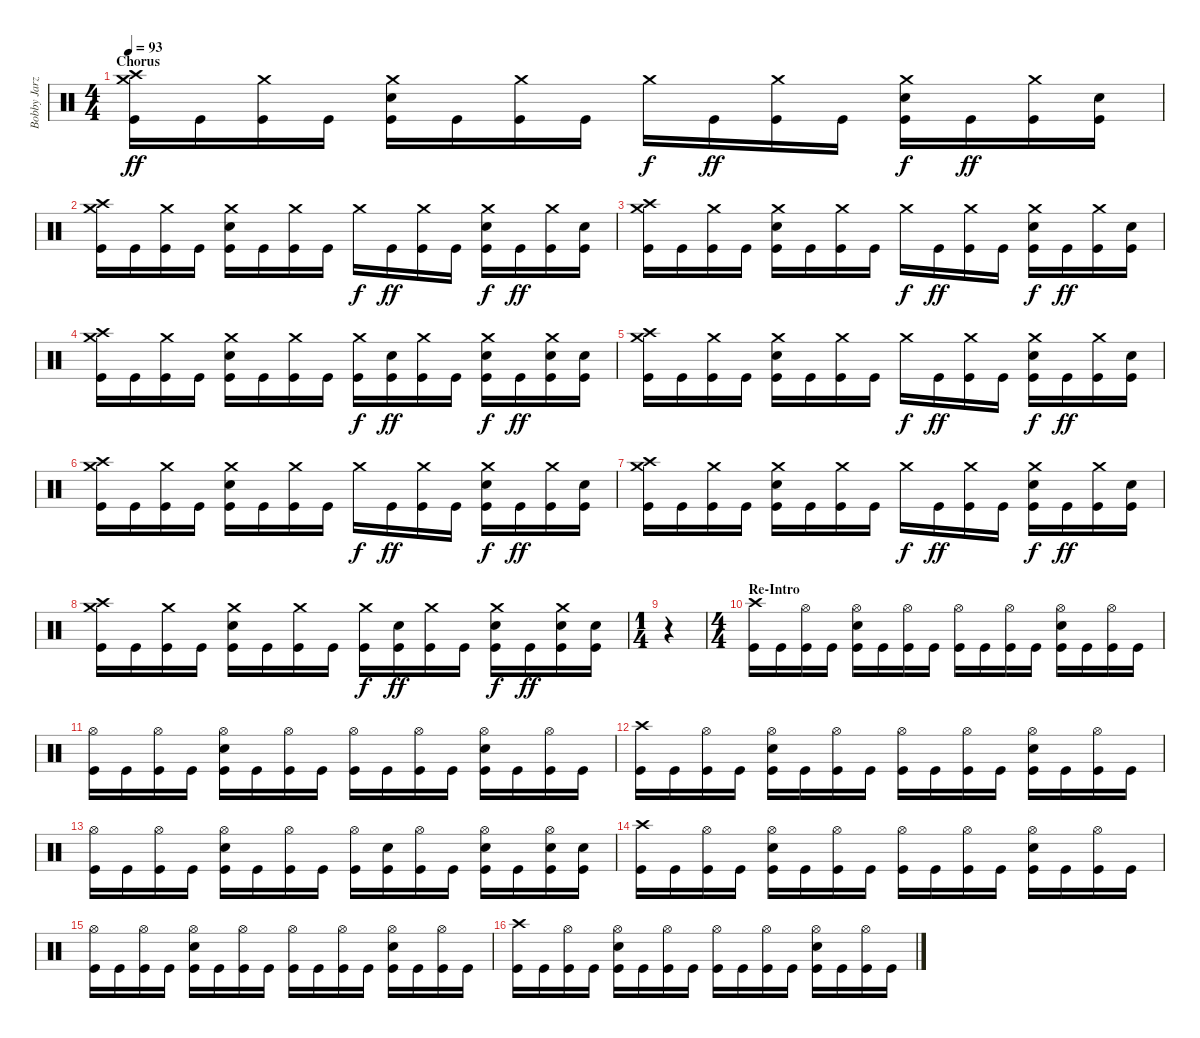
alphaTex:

\track ("Bobby Jarzombek" "Bobby Jarz") {instrument percussion}
\staff {score}
\articulation defaults
\ts (4 4)
\section ("" "Chorus")
\tempo 93
\clef neutral
\ks c
("Crash high (hit)" "Crash medium (hit)" "Kick (hit)").16{dy ff} "Kick (hit)".16 ("Crash medium (hit)" "Kick (hit)").16 "Kick (hit)".16 ("Crash medium (hit)" "Electric Snare (hit)" "Kick (hit)").16 "Kick (hit)".16 ("Crash medium (hit)" "Kick (hit)").16 "Kick (hit)".16 "Crash medium (hit)".16{dy f} "Kick (hit)".16{dy ff} ("Crash medium (hit)" "Kick (hit)").16 "Kick (hit)".16 ("Crash medium (hit)" "Electric Snare (hit)" "Kick (hit)").16{dy f} "Kick (hit)".16{dy ff} ("Crash medium (hit)" "Kick (hit)").16 ("Electric Snare (hit)" "Kick (hit)").16 |
("Crash medium (hit)" "Crash high (hit)" "Kick (hit)").16 "Kick (hit)".16 ("Crash medium (hit)" "Kick (hit)").16 "Kick (hit)".16 ("Crash medium (hit)" "Electric Snare (hit)" "Kick (hit)").16 "Kick (hit)".16 ("Crash medium (hit)" "Kick (hit)").16 "Kick (hit)".16 "Crash medium (hit)".16{dy f} "Kick (hit)".16{dy ff} ("Crash medium (hit)" "Kick (hit)").16 "Kick (hit)".16 ("Crash medium (hit)" "Electric Snare (hit)" "Kick (hit)").16{dy f} "Kick (hit)".16{dy ff} ("Crash medium (hit)" "Kick (hit)").16 ("Electric Snare (hit)" "Kick (hit)").16 |
("Crash high (hit)" "Crash medium (hit)" "Kick (hit)").16 "Kick (hit)".16 ("Crash medium (hit)" "Kick (hit)").16 "Kick (hit)".16 ("Crash medium (hit)" "Electric Snare (hit)" "Kick (hit)").16 "Kick (hit)".16 ("Crash medium (hit)" "Kick (hit)").16 "Kick (hit)".16 "Crash medium (hit)".16{dy f} "Kick (hit)".16{dy ff} ("Crash medium (hit)" "Kick (hit)").16 "Kick (hit)".16 ("Crash medium (hit)" "Electric Snare (hit)" "Kick (hit)").16{dy f} "Kick (hit)".16{dy ff} ("Crash medium (hit)" "Kick (hit)").16 ("Electric Snare (hit)" "Kick (hit)").16 |
("Crash medium (hit)" "Crash high (hit)" "Kick (hit)").16 "Kick (hit)".16 ("Crash medium (hit)" "Kick (hit)").16 "Kick (hit)".16 ("Crash medium (hit)" "Electric Snare (hit)" "Kick (hit)").16 "Kick (hit)".16 ("Crash medium (hit)" "Kick (hit)").16 "Kick (hit)".16 ("Crash medium (hit)" "Kick (hit)").16{dy f} ("Electric Snare (hit)" "Kick (hit)").16{dy ff} ("Crash medium (hit)" "Kick (hit)").16 "Kick (hit)".16 ("Crash medium (hit)" "Electric Snare (hit)" "Kick (hit)").16{dy f} "Kick (hit)".16{dy ff} ("Crash medium (hit)" "Electric Snare (hit)" "Kick (hit)").16 ("Electric Snare (hit)" "Kick (hit)").16 |
("Crash high (hit)" "Crash medium (hit)" "Kick (hit)").16 "Kick (hit)".16 ("Crash medium (hit)" "Kick (hit)").16 "Kick (hit)".16 ("Crash medium (hit)" "Electric Snare (hit)" "Kick (hit)").16 "Kick (hit)".16 ("Crash medium (hit)" "Kick (hit)").16 "Kick (hit)".16 "Crash medium (hit)".16{dy f} "Kick (hit)".16{dy ff} ("Crash medium (hit)" "Kick (hit)").16 "Kick (hit)".16 ("Crash medium (hit)" "Electric Snare (hit)" "Kick (hit)").16{dy f} "Kick (hit)".16{dy ff} ("Crash medium (hit)" "Kick (hit)").16 ("Electric Snare (hit)" "Kick (hit)").16 |
("Crash medium (hit)" "Crash high (hit)" "Kick (hit)").16 "Kick (hit)".16 ("Crash medium (hit)" "Kick (hit)").16 "Kick (hit)".16 ("Crash medium (hit)" "Electric Snare (hit)" "Kick (hit)").16 "Kick (hit)".16 ("Crash medium (hit)" "Kick (hit)").16 "Kick (hit)".16 "Crash medium (hit)".16{dy f} "Kick (hit)".16{dy ff} ("Crash medium (hit)" "Kick (hit)").16 "Kick (hit)".16 ("Crash medium (hit)" "Electric Snare (hit)" "Kick (hit)").16{dy f} "Kick (hit)".16{dy ff} ("Crash medium (hit)" "Kick (hit)").16 ("Electric Snare (hit)" "Kick (hit)").16 |
("Crash high (hit)" "Crash medium (hit)" "Kick (hit)").16 "Kick (hit)".16 ("Crash medium (hit)" "Kick (hit)").16 "Kick (hit)".16 ("Crash medium (hit)" "Electric Snare (hit)" "Kick (hit)").16 "Kick (hit)".16 ("Crash medium (hit)" "Kick (hit)").16 "Kick (hit)".16 "Crash medium (hit)".16{dy f} "Kick (hit)".16{dy ff} ("Crash medium (hit)" "Kick (hit)").16 "Kick (hit)".16 ("Crash medium (hit)" "Electric Snare (hit)" "Kick (hit)").16{dy f} "Kick (hit)".16{dy ff} ("Crash medium (hit)" "Kick (hit)").16 ("Electric Snare (hit)" "Kick (hit)").16 |
("Crash medium (hit)" "Crash high (hit)" "Kick (hit)").16 "Kick (hit)".16 ("Crash medium (hit)" "Kick (hit)").16 "Kick (hit)".16 ("Crash medium (hit)" "Electric Snare (hit)" "Kick (hit)").16 "Kick (hit)".16 ("Crash medium (hit)" "Kick (hit)").16 "Kick (hit)".16 ("Crash medium (hit)" "Kick (hit)").16{dy f} ("Electric Snare (hit)" "Kick (hit)").16{dy ff} ("Crash medium (hit)" "Kick (hit)").16 "Kick (hit)".16 ("Crash medium (hit)" "Electric Snare (hit)" "Kick (hit)").16{dy f} "Kick (hit)".16{dy ff} ("Crash medium (hit)" "Electric Snare (hit)" "Kick (hit)").16 ("Electric Snare (hit)" "Kick (hit)").16 |
\ts (1 4)
r.4 |
\ts (4 4)
\section ("" "Re-Intro")
("Crash high (hit)" "Kick (hit)").16 "Kick (hit)".16 ("Hi-Hat (open)" "Kick (hit)").16 "Kick (hit)".16 ("Hi-Hat (open)" "Electric Snare (hit)" "Kick (hit)").16 "Kick (hit)".16 ("Hi-Hat (open)" "Kick (hit)").16 "Kick (hit)".16 ("Hi-Hat (open)" "Kick (hit)").16 "Kick (hit)".16 ("Hi-Hat (open)" "Kick (hit)").16 "Kick (hit)".16 ("Hi-Hat (open)" "Electric Snare (hit)" "Kick (hit)").16 "Kick (hit)".16 ("Hi-Hat (open)" "Kick (hit)").16 "Kick (hit)".16 |
("Hi-Hat (open)" "Kick (hit)").16 "Kick (hit)".16 ("Hi-Hat (open)" "Kick (hit)").16 "Kick (hit)".16 ("Hi-Hat (open)" "Electric Snare (hit)" "Kick (hit)").16 "Kick (hit)".16 ("Hi-Hat (open)" "Kick (hit)").16 "Kick (hit)".16 ("Hi-Hat (open)" "Kick (hit)").16 "Kick (hit)".16 ("Hi-Hat (open)" "Kick (hit)").16 "Kick (hit)".16 ("Hi-Hat (open)" "Electric Snare (hit)" "Kick (hit)").16 "Kick (hit)".16 ("Hi-Hat (open)" "Kick (hit)").16 "Kick (hit)".16 |
("Crash high (hit)" "Kick (hit)").16 "Kick (hit)".16 ("Hi-Hat (open)" "Kick (hit)").16 "Kick (hit)".16 ("Hi-Hat (open)" "Electric Snare (hit)" "Kick (hit)").16 "Kick (hit)".16 ("Hi-Hat (open)" "Kick (hit)").16 "Kick (hit)".16 ("Hi-Hat (open)" "Kick (hit)").16 "Kick (hit)".16 ("Hi-Hat (open)" "Kick (hit)").16 "Kick (hit)".16 ("Hi-Hat (open)" "Electric Snare (hit)" "Kick (hit)").16 "Kick (hit)".16 ("Hi-Hat (open)" "Kick (hit)").16 "Kick (hit)".16 |
("Hi-Hat (open)" "Kick (hit)").16 "Kick (hit)".16 ("Hi-Hat (open)" "Kick (hit)").16 "Kick (hit)".16 ("Hi-Hat (open)" "Electric Snare (hit)" "Kick (hit)").16 "Kick (hit)".16 ("Hi-Hat (open)" "Kick (hit)").16 "Kick (hit)".16 ("Hi-Hat (open)" "Kick (hit)").16 ("Electric Snare (hit)" "Kick (hit)").16 ("Hi-Hat (open)" "Kick (hit)").16 "Kick (hit)".16 ("Hi-Hat (open)" "Electric Snare (hit)" "Kick (hit)").16 "Kick (hit)".16 ("Hi-Hat (open)" "Electric Snare (hit)" "Kick (hit)").16 ("Electric Snare (hit)" "Kick (hit)").16 |
("Crash high (hit)" "Kick (hit)").16 "Kick (hit)".16 ("Hi-Hat (open)" "Kick (hit)").16 "Kick (hit)".16 ("Hi-Hat (open)" "Electric Snare (hit)" "Kick (hit)").16 "Kick (hit)".16 ("Hi-Hat (open)" "Kick (hit)").16 "Kick (hit)".16 ("Hi-Hat (open)" "Kick (hit)").16 "Kick (hit)".16 ("Hi-Hat (open)" "Kick (hit)").16 "Kick (hit)".16 ("Hi-Hat (open)" "Electric Snare (hit)" "Kick (hit)").16 "Kick (hit)".16 ("Hi-Hat (open)" "Kick (hit)").16 "Kick (hit)".16 |
("Hi-Hat (open)" "Kick (hit)").16 "Kick (hit)".16 ("Hi-Hat (open)" "Kick (hit)").16 "Kick (hit)".16 ("Hi-Hat (open)" "Electric Snare (hit)" "Kick (hit)").16 "Kick (hit)".16 ("Hi-Hat (open)" "Kick (hit)").16 "Kick (hit)".16 ("Hi-Hat (open)" "Kick (hit)").16 "Kick (hit)".16 ("Hi-Hat (open)" "Kick (hit)").16 "Kick (hit)".16 ("Hi-Hat (open)" "Electric Snare (hit)" "Kick (hit)").16 "Kick (hit)".16 ("Hi-Hat (open)" "Kick (hit)").16 "Kick (hit)".16 |
("Crash high (hit)" "Kick (hit)").16 "Kick (hit)".16 ("Hi-Hat (open)" "Kick (hit)").16 "Kick (hit)".16 ("Hi-Hat (open)" "Electric Snare (hit)" "Kick (hit)").16 "Kick (hit)".16 ("Hi-Hat (open)" "Kick (hit)").16 "Kick (hit)".16 ("Hi-Hat (open)" "Kick (hit)").16 "Kick (hit)".16 ("Hi-Hat (open)" "Kick (hit)").16 "Kick (hit)".16 ("Hi-Hat (open)" "Electric Snare (hit)" "Kick (hit)").16 "Kick (hit)".16 ("Hi-Hat (open)" "Kick (hit)").16 "Kick (hit)".16
